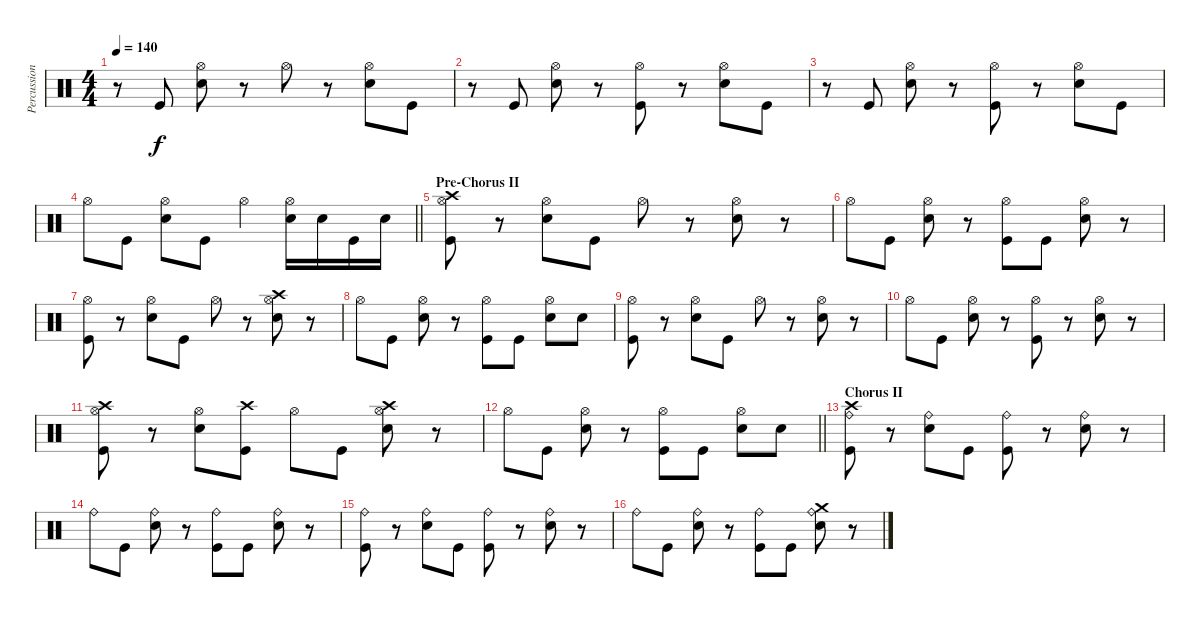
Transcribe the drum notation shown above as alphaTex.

\track ("Percussion" "Percussion") {instrument percussion}
\staff {score}
\articulation defaults
\ts (4 4)
\tempo 140
\clef neutral
\ks c
r.8{dy f} "Kick (hit)".8 ("Hi-Hat (open)" "Snare (hit) 2").8 r.8 "Hi-Hat (open)".8 r.8 ("Hi-Hat (open)" "Snare (hit) 2").8 "Kick (hit)".8 |
r.8 "Kick (hit)".8 ("Hi-Hat (open)" "Snare (hit) 2").8 r.8 ("Hi-Hat (open)" "Kick (hit)").8 r.8 ("Hi-Hat (open)" "Snare (hit) 2").8 "Kick (hit)".8 |
r.8 "Kick (hit)".8 ("Hi-Hat (open)" "Snare (hit) 2").8 r.8 ("Hi-Hat (open)" "Kick (hit)").8 r.8 ("Hi-Hat (open)" "Snare (hit) 2").8 "Kick (hit)".8 |
\barLineRight lightlight "Hi-Hat (open)".8 "Kick (hit)".8
("Hi-Hat (open)" "Snare (hit) 2").8 "Kick (hit)".8 "Hi-Hat (open)".4 ("Hi-Hat (open)" "Snare (hit) 2").16 "Snare (hit) 2".16 "Kick (hit)".16 "Snare (hit) 2".16 |
\section ("" "Pre-Chorus II")
("Crash high (hit)" "Hi-Hat (open)" "Kick (hit)").8 r.8 ("Hi-Hat (open)" "Snare (hit) 2").8 "Kick (hit)".8 "Hi-Hat (open)".8 r.8 ("Hi-Hat (open)" "Snare (hit) 2").8 r.8 |
"Hi-Hat (open)".8 "Kick (hit)".8 ("Hi-Hat (open)" "Snare (hit) 2").8 r.8 ("Hi-Hat (open)" "Kick (hit)").8 "Kick (hit)".8 ("Hi-Hat (open)" "Snare (hit) 2").8 r.8 |
("Hi-Hat (open)" "Kick (hit)").8 r.8 ("Hi-Hat (open)" "Snare (hit) 2").8 "Kick (hit)".8 "Hi-Hat (open)".8 r.8 ("Crash high (hit)" "Hi-Hat (open)" "Snare (hit) 2").8 r.8 |
"Hi-Hat (open)".8 "Kick (hit)".8 ("Hi-Hat (open)" "Snare (hit) 2").8 r.8 ("Hi-Hat (open)" "Kick (hit)").8 "Kick (hit)".8 ("Hi-Hat (open)" "Snare (hit) 2").8 "Snare (hit) 2".8 |
("Hi-Hat (open)" "Kick (hit)").8 r.8 ("Hi-Hat (open)" "Snare (hit) 2").8 "Kick (hit)".8 "Hi-Hat (open)".8 r.8 ("Hi-Hat (open)" "Snare (hit) 2").8 r.8 |
"Hi-Hat (open)".8 "Kick (hit)".8 ("Hi-Hat (open)" "Snare (hit) 2").8 r.8 ("Hi-Hat (open)" "Kick (hit)").8 r.8 ("Hi-Hat (open)" "Snare (hit) 2").8 r.8 |
("Crash high (hit)" "Hi-Hat (open)" "Kick (hit)").8 r.8 ("Hi-Hat (open)" "Snare (hit) 2").8 ("Crash high (hit)" "Kick (hit)").8 "Hi-Hat (open)".8 "Kick (hit)".8 ("Crash high (hit)" "Hi-Hat (open)" "Snare (hit) 2").8 r.8 |
\barLineRight lightlight "Hi-Hat (open)".8 "Kick (hit)".8
("Hi-Hat (open)" "Snare (hit) 2").8 r.8 ("Hi-Hat (open)" "Kick (hit)").8 "Kick (hit)".8 ("Hi-Hat (open)" "Snare (hit) 2").8 "Snare (hit) 2".8 |
\section ("" "Chorus II")
("Crash high (hit)" "Ride (bell)" "Kick (hit)").8 r.8 ("Ride (bell)" "Snare (hit) 2").8 "Kick (hit)".8 ("Ride (bell)" "Kick (hit)").8 r.8 ("Ride (bell)" "Snare (hit) 2").8 r.8 |
"Ride (bell)".8 "Kick (hit)".8 ("Ride (bell)" "Snare (hit) 2").8 r.8 ("Ride (bell)" "Kick (hit)").8 "Kick (hit)".8 ("Ride (bell)" "Snare (hit) 2").8 r.8 |
("Ride (bell)" "Kick (hit)").8 r.8 ("Ride (bell)" "Snare (hit) 2").8 "Kick (hit)".8 ("Ride (bell)" "Kick (hit)").8 r.8 ("Ride (bell)" "Snare (hit) 2").8 r.8 |
"Ride (bell)".8 "Kick (hit)".8 ("Ride (bell)" "Snare (hit) 2").8 r.8 ("Ride (bell)" "Kick (hit)").8 "Kick (hit)".8 ("Crash medium (hit)" "Ride (bell)" "Snare (hit) 2").8 r.8
